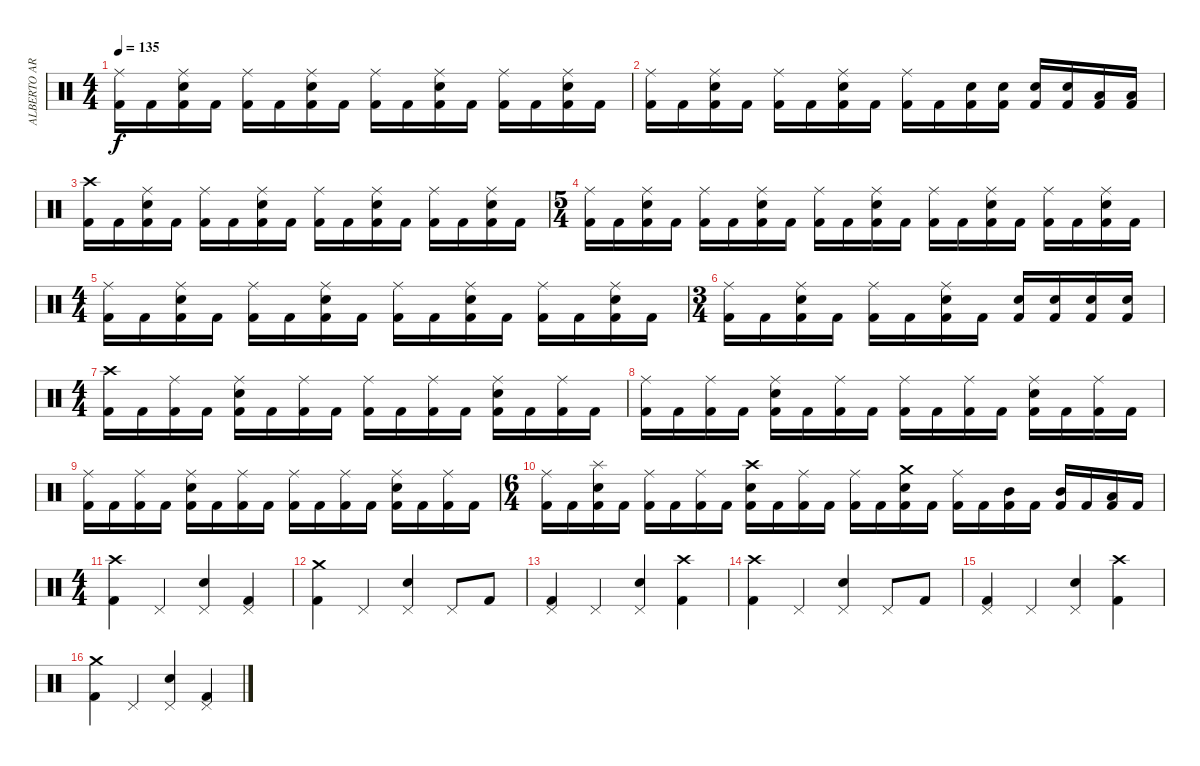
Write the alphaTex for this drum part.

\track ("ALBERTO ARDINES" "ALBERTO AR") {instrument percussion}
\staff {score}
\articulation defaults
\ts (4 4)
\tempo 135
\clef neutral
\ks c
("Ride (middle)" "Kick (hit) 2").16{dy f} "Kick (hit) 2".16 ("Ride (middle)" "Electric Snare (hit)" "Kick (hit) 2").16 "Kick (hit) 2".16 ("Ride (middle)" "Kick (hit) 2").16 "Kick (hit) 2".16 ("Ride (middle)" "Electric Snare (hit)" "Kick (hit) 2").16 "Kick (hit) 2".16 ("Ride (middle)" "Kick (hit) 2").16 "Kick (hit) 2".16 ("Ride (middle)" "Electric Snare (hit)" "Kick (hit) 2").16 "Kick (hit) 2".16 ("Ride (middle)" "Kick (hit) 2").16 "Kick (hit) 2".16 ("Ride (middle)" "Electric Snare (hit)" "Kick (hit) 2").16 "Kick (hit) 2".16 |
("Ride (middle)" "Kick (hit) 2").16 "Kick (hit) 2".16 ("Ride (middle)" "Electric Snare (hit)" "Kick (hit) 2").16 "Kick (hit) 2".16 ("Ride (middle)" "Kick (hit) 2").16 "Kick (hit) 2".16 ("Ride (middle)" "Electric Snare (hit)" "Kick (hit) 2").16 "Kick (hit) 2".16 ("Ride (middle)" "Kick (hit) 2").16 "Kick (hit) 2".16 ("Electric Snare (hit)" "Kick (hit) 2").16 ("Electric Snare (hit)" "Kick (hit) 2").16 ("Electric Snare (hit)" "Kick (hit) 2").16 ("Electric Snare (hit)" "Kick (hit) 2").16 ("Low Tom (hit)" "Kick (hit) 2").16 ("Low Tom (hit)" "Kick (hit) 2").16 |
("Crash high (hit)" "Kick (hit) 2").16 "Kick (hit) 2".16 ("Ride (middle)" "Electric Snare (hit)" "Kick (hit) 2").16 "Kick (hit) 2".16 ("Ride (middle)" "Kick (hit) 2").16 "Kick (hit) 2".16 ("Ride (middle)" "Electric Snare (hit)" "Kick (hit) 2").16 "Kick (hit) 2".16 ("Ride (middle)" "Kick (hit) 2").16 "Kick (hit) 2".16 ("Ride (middle)" "Electric Snare (hit)" "Kick (hit) 2").16 "Kick (hit) 2".16 ("Ride (middle)" "Kick (hit) 2").16 "Kick (hit) 2".16 ("Ride (middle)" "Electric Snare (hit)" "Kick (hit) 2").16 "Kick (hit) 2".16 |
\ts (5 4)
("Ride (middle)" "Kick (hit) 2").16 "Kick (hit) 2".16 ("Ride (middle)" "Electric Snare (hit)" "Kick (hit) 2").16 "Kick (hit) 2".16 ("Ride (middle)" "Kick (hit) 2").16 "Kick (hit) 2".16 ("Ride (middle)" "Electric Snare (hit)" "Kick (hit) 2").16 "Kick (hit) 2".16 ("Ride (middle)" "Kick (hit) 2").16 "Kick (hit) 2".16 ("Ride (middle)" "Electric Snare (hit)" "Kick (hit) 2").16 "Kick (hit) 2".16 ("Ride (middle)" "Kick (hit) 2").16 "Kick (hit) 2".16 ("Ride (middle)" "Electric Snare (hit)" "Kick (hit) 2").16 "Kick (hit) 2".16 ("Ride (middle)" "Kick (hit) 2").16 "Kick (hit) 2".16 ("Ride (middle)" "Electric Snare (hit)" "Kick (hit) 2").16 "Kick (hit) 2".16 |
\ts (4 4)
("Ride (middle)" "Kick (hit) 2").16 "Kick (hit) 2".16 ("Ride (middle)" "Electric Snare (hit)" "Kick (hit) 2").16 "Kick (hit) 2".16 ("Ride (middle)" "Kick (hit) 2").16 "Kick (hit) 2".16 ("Ride (middle)" "Electric Snare (hit)" "Kick (hit) 2").16 "Kick (hit) 2".16 ("Ride (middle)" "Kick (hit) 2").16 "Kick (hit) 2".16 ("Ride (middle)" "Electric Snare (hit)" "Kick (hit) 2").16 "Kick (hit) 2".16 ("Ride (middle)" "Kick (hit) 2").16 "Kick (hit) 2".16 ("Ride (middle)" "Electric Snare (hit)" "Kick (hit) 2").16 "Kick (hit) 2".16 |
\ts (3 4)
("Ride (middle)" "Kick (hit) 2").16 "Kick (hit) 2".16 ("Ride (middle)" "Electric Snare (hit)" "Kick (hit) 2").16 "Kick (hit) 2".16 ("Ride (middle)" "Kick (hit) 2").16 "Kick (hit) 2".16 ("Ride (middle)" "Electric Snare (hit)" "Kick (hit) 2").16 "Kick (hit) 2".16 ("Electric Snare (hit)" "Kick (hit) 2").16 ("Electric Snare (hit)" "Kick (hit) 2").16 ("Electric Snare (hit)" "Kick (hit) 2").16 ("Electric Snare (hit)" "Kick (hit) 2").16 |
\ts (4 4)
("Crash high (hit)" "Kick (hit) 2").16 "Kick (hit) 2".16 ("Ride (middle)" "Kick (hit) 2").16 "Kick (hit) 2".16 ("Ride (middle)" "Electric Snare (hit)" "Kick (hit) 2").16 "Kick (hit) 2".16 ("Ride (middle)" "Kick (hit) 2").16 "Kick (hit) 2".16 ("Ride (middle)" "Kick (hit) 2").16 "Kick (hit) 2".16 ("Ride (middle)" "Kick (hit) 2").16 "Kick (hit) 2".16 ("Ride (middle)" "Electric Snare (hit)" "Kick (hit) 2").16 "Kick (hit) 2".16 ("Ride (middle)" "Kick (hit) 2").16 "Kick (hit) 2".16 |
("Ride (middle)" "Kick (hit) 2").16 "Kick (hit) 2".16 ("Ride (middle)" "Kick (hit) 2").16 "Kick (hit) 2".16 ("Ride (middle)" "Electric Snare (hit)" "Kick (hit) 2").16 "Kick (hit) 2".16 ("Ride (middle)" "Kick (hit) 2").16 "Kick (hit) 2".16 ("Ride (middle)" "Kick (hit) 2").16 "Kick (hit) 2".16 ("Ride (middle)" "Kick (hit) 2").16 "Kick (hit) 2".16 ("Ride (middle)" "Electric Snare (hit)" "Kick (hit) 2").16 "Kick (hit) 2".16 ("Ride (middle)" "Kick (hit) 2").16 "Kick (hit) 2".16 |
("Ride (middle)" "Kick (hit) 2").16 "Kick (hit) 2".16 ("Ride (middle)" "Kick (hit) 2").16 "Kick (hit) 2".16 ("Ride (middle)" "Electric Snare (hit)" "Kick (hit) 2").16 "Kick (hit) 2".16 ("Ride (middle)" "Kick (hit) 2").16 "Kick (hit) 2".16 ("Ride (middle)" "Kick (hit) 2").16 "Kick (hit) 2".16 ("Ride (middle)" "Kick (hit) 2").16 "Kick (hit) 2".16 ("Ride (middle)" "Electric Snare (hit)" "Kick (hit) 2").16 "Kick (hit) 2".16 ("Ride (middle)" "Kick (hit) 2").16 "Kick (hit) 2".16 |
\ts (6 4)
("Ride (middle)" "Kick (hit) 2").16 "Kick (hit) 2".16 ("Splash (hit)" "Electric Snare (hit)" "Kick (hit) 2").16 "Kick (hit) 2".16 ("Ride (middle)" "Kick (hit) 2").16 "Kick (hit) 2".16 ("Ride (middle)" "Kick (hit) 2").16 "Kick (hit) 2".16 ("Crash high (hit)" "Electric Snare (hit)" "Kick (hit) 2").16 "Kick (hit) 2".16 ("Ride (middle)" "Kick (hit) 2").16 "Kick (hit) 2".16 ("Ride (middle)" "Kick (hit) 2").16 "Kick (hit) 2".16 ("Crash medium (hit)" "Electric Snare (hit)" "Kick (hit) 2").16 "Kick (hit) 2".16 ("Ride (middle)" "Kick (hit) 2").16 "Kick (hit) 2".16 ("Mid Tom (hit)" "Kick (hit) 2").16 "Kick (hit) 2".16 ("Mid Tom (hit)" "Kick (hit) 2").16 "Kick (hit) 2".16 ("Low Tom (hit)" "Kick (hit) 2").16 "Kick (hit) 2".16 |
\ts (4 4)
("Crash high (hit)" "Kick (hit) 2").4 "Pedal Hi-Hat (hit)".4 ("Pedal Hi-Hat (hit)" "Electric Snare (hit)").4 ("Pedal Hi-Hat (hit)" "Kick (hit) 2").4 |
("Crash medium (hit)" "Kick (hit) 2").4 "Pedal Hi-Hat (hit)".4 ("Pedal Hi-Hat (hit)" "Electric Snare (hit)").4 "Pedal Hi-Hat (hit)".8 "Kick (hit) 2".8 |
("Pedal Hi-Hat (hit)" "Kick (hit) 2").4 "Pedal Hi-Hat (hit)".4 ("Pedal Hi-Hat (hit)" "Electric Snare (hit)").4 ("Crash high (hit)" "Kick (hit) 2").4 |
("Crash high (hit)" "Kick (hit) 2").4 "Pedal Hi-Hat (hit)".4 ("Pedal Hi-Hat (hit)" "Electric Snare (hit)").4 "Pedal Hi-Hat (hit)".8 "Kick (hit) 2".8 |
("Pedal Hi-Hat (hit)" "Kick (hit) 2").4 "Pedal Hi-Hat (hit)".4 ("Pedal Hi-Hat (hit)" "Electric Snare (hit)").4 ("Crash high (hit)" "Kick (hit) 2").4 |
("Crash medium (hit)" "Kick (hit) 2").4 "Pedal Hi-Hat (hit)".4 ("Pedal Hi-Hat (hit)" "Electric Snare (hit)").4 ("Pedal Hi-Hat (hit)" "Kick (hit) 2").4
